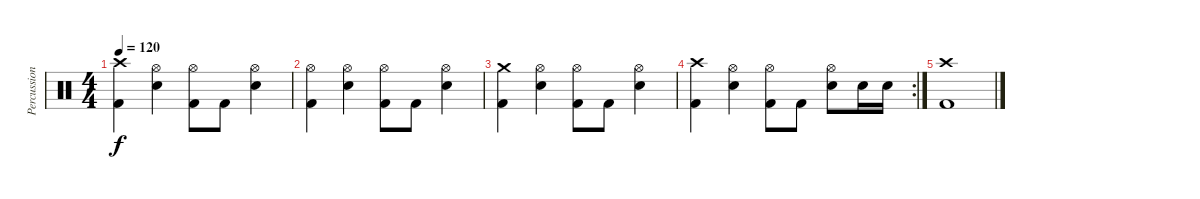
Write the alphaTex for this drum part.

\track ("Percussion" "Percussion") {instrument percussion}
\staff {score}
\articulation defaults
\ts (4 4)
\tempo 120
\clef neutral
\ks c
("Kick (hit) 2" "Crash high (hit)").4{dy f} ("Snare (hit) 2" "Hi-Hat (open)").4 ("Kick (hit) 2" "Hi-Hat (open)").8 "Kick (hit) 2".8 ("Snare (hit) 2" "Hi-Hat (open)").4 |
("Kick (hit) 2" "Hi-Hat (open)").4 ("Snare (hit) 2" "Hi-Hat (open)").4 ("Kick (hit) 2" "Hi-Hat (open)").8 "Kick (hit) 2".8 ("Snare (hit) 2" "Hi-Hat (open)").4 |
("Kick (hit) 2" "Crash medium (hit)").4 ("Snare (hit) 2" "Hi-Hat (open)").4 ("Kick (hit) 2" "Hi-Hat (open)").8 "Kick (hit) 2".8 ("Snare (hit) 2" "Hi-Hat (open)").4 |
\rc 2
("Kick (hit) 2" "Crash high (hit)").4 ("Snare (hit) 2" "Hi-Hat (open)").4 ("Kick (hit) 2" "Hi-Hat (open)").8 "Kick (hit) 2".8 ("Snare (hit) 2" "Hi-Hat (open)").8 "Snare (hit) 2".16 "Snare (hit) 2".16 |
("Kick (hit) 2" "Crash high (hit)").1
